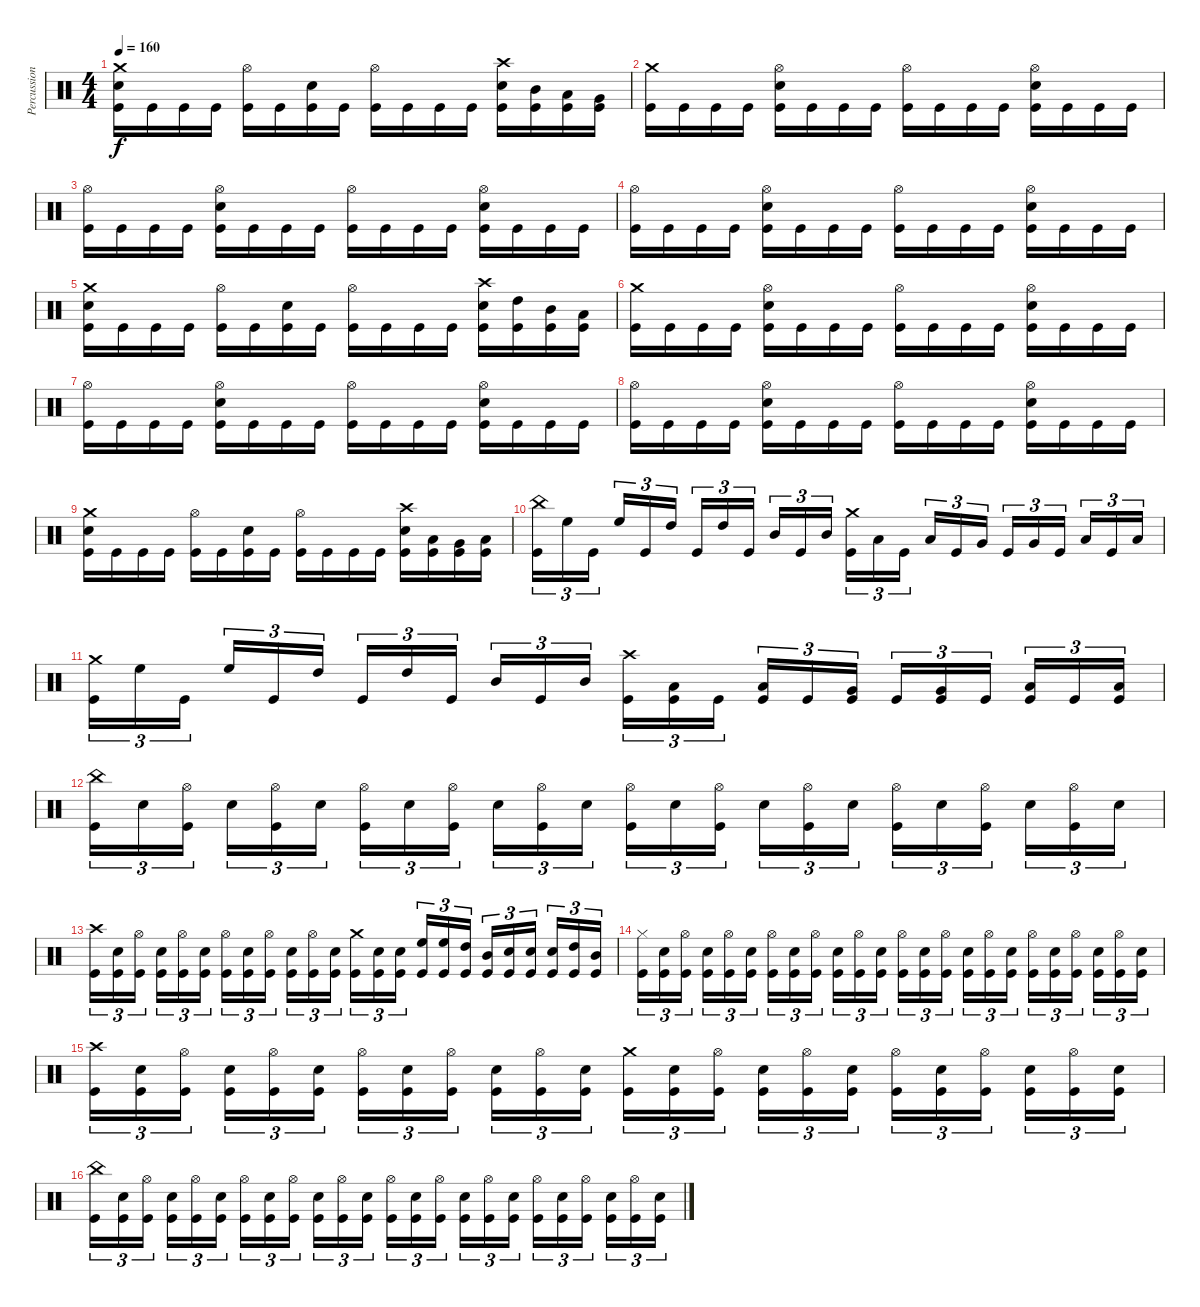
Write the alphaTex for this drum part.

\track ("Percussion" "Percussion") {instrument percussion}
\staff {score}
\articulation defaults
\ts (4 4)
\tempo 160
\clef neutral
\ks c
("Crash medium (hit)" "Snare (hit) 2" "Kick (hit)").16{dy f} "Kick (hit)".16 "Kick (hit)".16 "Kick (hit)".16 ("Hi-Hat (open)" "Kick (hit)").16 "Kick (hit)".16 ("Snare (hit) 2" "Kick (hit)").16 "Kick (hit)".16 ("Hi-Hat (open)" "Kick (hit)").16 "Kick (hit)".16 "Kick (hit)".16 "Kick (hit)".16 ("Crash high (hit)" "Snare (hit) 2" "Kick (hit)").16 ("Mid Tom (hit)" "Kick (hit)").16 ("Low Tom (hit)" "Kick (hit)").16 ("Very Low Tom (hit)" "Kick (hit)").16 |
("Crash medium (hit)" "Kick (hit)").16 "Kick (hit)".16 "Kick (hit)".16 "Kick (hit)".16 ("Hi-Hat (open)" "Snare (hit) 2" "Kick (hit)").16 "Kick (hit)".16 "Kick (hit)".16 "Kick (hit)".16 ("Hi-Hat (open)" "Kick (hit)").16 "Kick (hit)".16 "Kick (hit)".16 "Kick (hit)".16 ("Hi-Hat (open)" "Snare (hit) 2" "Kick (hit)").16 "Kick (hit)".16 "Kick (hit)".16 "Kick (hit)".16 |
("Hi-Hat (open)" "Kick (hit)").16 "Kick (hit)".16 "Kick (hit)".16 "Kick (hit)".16 ("Hi-Hat (open)" "Snare (hit) 2" "Kick (hit)").16 "Kick (hit)".16 "Kick (hit)".16 "Kick (hit)".16 ("Hi-Hat (open)" "Kick (hit)").16 "Kick (hit)".16 "Kick (hit)".16 "Kick (hit)".16 ("Hi-Hat (open)" "Snare (hit) 2" "Kick (hit)").16 "Kick (hit)".16 "Kick (hit)".16 "Kick (hit)".16 |
("Hi-Hat (open)" "Kick (hit)").16 "Kick (hit)".16 "Kick (hit)".16 "Kick (hit)".16 ("Hi-Hat (open)" "Snare (hit) 2" "Kick (hit)").16 "Kick (hit)".16 "Kick (hit)".16 "Kick (hit)".16 ("Hi-Hat (open)" "Kick (hit)").16 "Kick (hit)".16 "Kick (hit)".16 "Kick (hit)".16 ("Hi-Hat (open)" "Snare (hit) 2" "Kick (hit)").16 "Kick (hit)".16 "Kick (hit)".16 "Kick (hit)".16 |
("Crash medium (hit)" "Snare (hit) 2" "Kick (hit)").16 "Kick (hit)".16 "Kick (hit)".16 "Kick (hit)".16 ("Hi-Hat (open)" "Kick (hit)").16 "Kick (hit)".16 ("Snare (hit) 2" "Kick (hit)").16 "Kick (hit)".16 ("Hi-Hat (open)" "Kick (hit)").16 "Kick (hit)".16 "Kick (hit)".16 "Kick (hit)".16 ("Crash high (hit)" "Snare (hit) 2" "Kick (hit)").16 ("High Tom (hit)" "Kick (hit)").16 ("Mid Tom (hit)" "Kick (hit)").16 ("Low Tom (hit)" "Kick (hit)").16 |
("Crash medium (hit)" "Kick (hit)").16 "Kick (hit)".16 "Kick (hit)".16 "Kick (hit)".16 ("Hi-Hat (open)" "Snare (hit) 2" "Kick (hit)").16 "Kick (hit)".16 "Kick (hit)".16 "Kick (hit)".16 ("Hi-Hat (open)" "Kick (hit)").16 "Kick (hit)".16 "Kick (hit)".16 "Kick (hit)".16 ("Hi-Hat (open)" "Snare (hit) 2" "Kick (hit)").16 "Kick (hit)".16 "Kick (hit)".16 "Kick (hit)".16 |
("Hi-Hat (open)" "Kick (hit)").16 "Kick (hit)".16 "Kick (hit)".16 "Kick (hit)".16 ("Hi-Hat (open)" "Snare (hit) 2" "Kick (hit)").16 "Kick (hit)".16 "Kick (hit)".16 "Kick (hit)".16 ("Hi-Hat (open)" "Kick (hit)").16 "Kick (hit)".16 "Kick (hit)".16 "Kick (hit)".16 ("Hi-Hat (open)" "Snare (hit) 2" "Kick (hit)").16 "Kick (hit)".16 "Kick (hit)".16 "Kick (hit)".16 |
("Hi-Hat (open)" "Kick (hit)").16 "Kick (hit)".16 "Kick (hit)".16 "Kick (hit)".16 ("Hi-Hat (open)" "Snare (hit) 2" "Kick (hit)").16 "Kick (hit)".16 "Kick (hit)".16 "Kick (hit)".16 ("Hi-Hat (open)" "Kick (hit)").16 "Kick (hit)".16 "Kick (hit)".16 "Kick (hit)".16 ("Hi-Hat (open)" "Snare (hit) 2" "Kick (hit)").16 "Kick (hit)".16 "Kick (hit)".16 "Kick (hit)".16 |
("Crash medium (hit)" "Snare (hit) 2" "Kick (hit)").16 "Kick (hit)".16 "Kick (hit)".16 "Kick (hit)".16 ("Hi-Hat (open)" "Kick (hit)").16 "Kick (hit)".16 ("Snare (hit) 2" "Kick (hit)").16 "Kick (hit)".16 ("Hi-Hat (open)" "Kick (hit)").16 "Kick (hit)".16 "Kick (hit)".16 "Kick (hit)".16 ("Crash high (hit)" "Snare (hit) 2" "Kick (hit)").16 ("Low Tom (hit)" "Kick (hit)").16 ("Very Low Tom (hit)" "Kick (hit)").16 ("Low Floor Tom (hit)" "Kick (hit)").16 |
("China (hit)" "Kick (hit)").16{tu (3 2)} "High Floor Tom (hit)".16{tu (3 2)} "Kick (hit)".16{tu (3 2) beam splitsecondary} "High Floor Tom (hit)".16{tu (3 2)} "Kick (hit)".16{tu (3 2)} "High Tom (hit)".16{tu (3 2)} "Kick (hit)".16{tu (3 2)} "High Tom (hit)".16{tu (3 2)} "Kick (hit)".16{tu (3 2) beam splitsecondary} "Mid Tom (hit)".16{tu (3 2)} "Kick (hit)".16{tu (3 2)} "Mid Tom (hit)".16{tu (3 2)} ("Crash medium (hit)" "Kick (hit)").16{tu (3 2)} "Low Tom (hit)".16{tu (3 2)} "Kick (hit)".16{tu (3 2) beam splitsecondary} "Low Tom (hit)".16{tu (3 2)} "Kick (hit)".16{tu (3 2)} "Very Low Tom (hit)".16{tu (3 2)} "Kick (hit)".16{tu (3 2)} "Very Low Tom (hit)".16{tu (3 2)} "Kick (hit)".16{tu (3 2) beam splitsecondary} "Low Floor Tom (hit)".16{tu (3 2)} "Kick (hit)".16{tu (3 2)} "Low Floor Tom (hit)".16{tu (3 2)} |
("Crash medium (hit)" "Kick (hit)").16{tu (3 2)} "High Floor Tom (hit)".16{tu (3 2)} "Kick (hit)".16{tu (3 2) beam splitsecondary} "High Floor Tom (hit)".16{tu (3 2)} "Kick (hit)".16{tu (3 2)} "High Tom (hit)".16{tu (3 2)} "Kick (hit)".16{tu (3 2)} "High Tom (hit)".16{tu (3 2)} "Kick (hit)".16{tu (3 2) beam splitsecondary} "Mid Tom (hit)".16{tu (3 2)} "Kick (hit)".16{tu (3 2)} "Mid Tom (hit)".16{tu (3 2)} ("Crash high (hit)" "Kick (hit)").16{tu (3 2)} ("Low Tom (hit)" "Kick (hit)").16{tu (3 2)} "Kick (hit)".16{tu (3 2) beam splitsecondary} ("Low Tom (hit)" "Kick (hit)").16{tu (3 2)} "Kick (hit)".16{tu (3 2)} ("Very Low Tom (hit)" "Kick (hit)").16{tu (3 2)} "Kick (hit)".16{tu (3 2)} ("Very Low Tom (hit)" "Kick (hit)").16{tu (3 2)} "Kick (hit)".16{tu (3 2) beam splitsecondary} ("Low Floor Tom (hit)" "Kick (hit)").16{tu (3 2)} "Kick (hit)".16{tu (3 2)} ("Low Floor Tom (hit)" "Kick (hit)").16{tu (3 2)} |
("China (hit)" "Kick (hit)").16{tu (3 2)} "Snare (hit) 2".16{tu (3 2)} ("Hi-Hat (open)" "Kick (hit)").16{tu (3 2) beam splitsecondary} "Snare (hit) 2".16{tu (3 2)} ("Hi-Hat (open)" "Kick (hit)").16{tu (3 2)} "Snare (hit) 2".16{tu (3 2)} ("Hi-Hat (open)" "Kick (hit)").16{tu (3 2)} "Snare (hit) 2".16{tu (3 2)} ("Hi-Hat (open)" "Kick (hit)").16{tu (3 2) beam splitsecondary} "Snare (hit) 2".16{tu (3 2)} ("Hi-Hat (open)" "Kick (hit)").16{tu (3 2)} "Snare (hit) 2".16{tu (3 2)} ("Hi-Hat (open)" "Kick (hit)").16{tu (3 2)} "Snare (hit) 2".16{tu (3 2)} ("Hi-Hat (open)" "Kick (hit)").16{tu (3 2) beam splitsecondary} "Snare (hit) 2".16{tu (3 2)} ("Hi-Hat (open)" "Kick (hit)").16{tu (3 2)} "Snare (hit) 2".16{tu (3 2)} ("Hi-Hat (open)" "Kick (hit)").16{tu (3 2)} "Snare (hit) 2".16{tu (3 2)} ("Hi-Hat (open)" "Kick (hit)").16{tu (3 2) beam splitsecondary} "Snare (hit) 2".16{tu (3 2)} ("Hi-Hat (open)" "Kick (hit)").16{tu (3 2)} "Snare (hit) 2".16{tu (3 2)} |
("Crash high (hit)" "Kick (hit)").16{tu (3 2)} ("Snare (hit) 2" "Kick (hit)").16{tu (3 2)} ("Hi-Hat (open)" "Kick (hit)").16{tu (3 2) beam splitsecondary} ("Snare (hit) 2" "Kick (hit)").16{tu (3 2)} ("Hi-Hat (open)" "Kick (hit)").16{tu (3 2)} ("Snare (hit) 2" "Kick (hit)").16{tu (3 2)} ("Hi-Hat (open)" "Kick (hit)").16{tu (3 2)} ("Snare (hit) 2" "Kick (hit)").16{tu (3 2)} ("Hi-Hat (open)" "Kick (hit)").16{tu (3 2) beam splitsecondary} ("Snare (hit) 2" "Kick (hit)").16{tu (3 2)} ("Hi-Hat (open)" "Kick (hit)").16{tu (3 2)} ("Snare (hit) 2" "Kick (hit)").16{tu (3 2)} ("Crash medium (hit)" "Kick (hit)").16{tu (3 2)} ("Snare (hit) 2" "Kick (hit)").16{tu (3 2)} ("Snare (hit) 2" "Kick (hit)").16{tu (3 2) beam splitsecondary} ("High Floor Tom (hit)" "Kick (hit)").16{tu (3 2)} ("High Floor Tom (hit)" "Kick (hit)").16{tu (3 2)} ("High Tom (hit)" "Kick (hit)").16{tu (3 2)} ("Mid Tom (hit)" "Kick (hit)").16{tu (3 2)} ("Snare (hit) 2" "Kick (hit)").16{tu (3 2)} ("Snare (hit) 2" "Kick (hit)").16{tu (3 2) beam splitsecondary} ("Snare (hit) 2" "Kick (hit)").16{tu (3 2)} ("High Tom (hit)" "Kick (hit)").16{tu (3 2)} ("Mid Tom (hit)" "Kick (hit)").16{tu (3 2)} |
("Hi-Hat (closed)" "Kick (hit)").16{tu (3 2)} ("Snare (hit) 2" "Kick (hit)").16{tu (3 2)} ("Hi-Hat (open)" "Kick (hit)").16{tu (3 2) beam splitsecondary} ("Snare (hit) 2" "Kick (hit)").16{tu (3 2)} ("Hi-Hat (open)" "Kick (hit)").16{tu (3 2)} ("Snare (hit) 2" "Kick (hit)").16{tu (3 2)} ("Hi-Hat (open)" "Kick (hit)").16{tu (3 2)} ("Snare (hit) 2" "Kick (hit)").16{tu (3 2)} ("Hi-Hat (open)" "Kick (hit)").16{tu (3 2) beam splitsecondary} ("Snare (hit) 2" "Kick (hit)").16{tu (3 2)} ("Hi-Hat (open)" "Kick (hit)").16{tu (3 2)} ("Snare (hit) 2" "Kick (hit)").16{tu (3 2)} ("Hi-Hat (open)" "Kick (hit)").16{tu (3 2)} ("Snare (hit) 2" "Kick (hit)").16{tu (3 2)} ("Hi-Hat (open)" "Kick (hit)").16{tu (3 2) beam splitsecondary} ("Snare (hit) 2" "Kick (hit)").16{tu (3 2)} ("Hi-Hat (open)" "Kick (hit)").16{tu (3 2)} ("Snare (hit) 2" "Kick (hit)").16{tu (3 2)} ("Hi-Hat (open)" "Kick (hit)").16{tu (3 2)} ("Snare (hit) 2" "Kick (hit)").16{tu (3 2)} ("Hi-Hat (open)" "Kick (hit)").16{tu (3 2) beam splitsecondary} ("Snare (hit) 2" "Kick (hit)").16{tu (3 2)} ("Hi-Hat (open)" "Kick (hit)").16{tu (3 2)} ("Snare (hit) 2" "Kick (hit)").16{tu (3 2)} |
("Crash high (hit)" "Kick (hit)").16{tu (3 2)} ("Snare (hit) 2" "Kick (hit)").16{tu (3 2)} ("Hi-Hat (open)" "Kick (hit)").16{tu (3 2) beam splitsecondary} ("Snare (hit) 2" "Kick (hit)").16{tu (3 2)} ("Hi-Hat (open)" "Kick (hit)").16{tu (3 2)} ("Snare (hit) 2" "Kick (hit)").16{tu (3 2)} ("Hi-Hat (open)" "Kick (hit)").16{tu (3 2)} ("Snare (hit) 2" "Kick (hit)").16{tu (3 2)} ("Hi-Hat (open)" "Kick (hit)").16{tu (3 2) beam splitsecondary} ("Snare (hit) 2" "Kick (hit)").16{tu (3 2)} ("Hi-Hat (open)" "Kick (hit)").16{tu (3 2)} ("Snare (hit) 2" "Kick (hit)").16{tu (3 2)} ("Crash medium (hit)" "Kick (hit)").16{tu (3 2)} ("Snare (hit) 2" "Kick (hit)").16{tu (3 2)} ("Hi-Hat (open)" "Kick (hit)").16{tu (3 2) beam splitsecondary} ("Snare (hit) 2" "Kick (hit)").16{tu (3 2)} ("Hi-Hat (open)" "Kick (hit)").16{tu (3 2)} ("Snare (hit) 2" "Kick (hit)").16{tu (3 2)} ("Hi-Hat (open)" "Kick (hit)").16{tu (3 2)} ("Snare (hit) 2" "Kick (hit)").16{tu (3 2)} ("Hi-Hat (open)" "Kick (hit)").16{tu (3 2) beam splitsecondary} ("Snare (hit) 2" "Kick (hit)").16{tu (3 2)} ("Hi-Hat (open)" "Kick (hit)").16{tu (3 2)} ("Snare (hit) 2" "Kick (hit)").16{tu (3 2)} |
("China (hit)" "Kick (hit)").16{tu (3 2)} ("Snare (hit) 2" "Kick (hit)").16{tu (3 2)} ("Hi-Hat (open)" "Kick (hit)").16{tu (3 2) beam splitsecondary} ("Snare (hit) 2" "Kick (hit)").16{tu (3 2)} ("Hi-Hat (open)" "Kick (hit)").16{tu (3 2)} ("Snare (hit) 2" "Kick (hit)").16{tu (3 2)} ("Hi-Hat (open)" "Kick (hit)").16{tu (3 2)} ("Snare (hit) 2" "Kick (hit)").16{tu (3 2)} ("Hi-Hat (open)" "Kick (hit)").16{tu (3 2) beam splitsecondary} ("Snare (hit) 2" "Kick (hit)").16{tu (3 2)} ("Hi-Hat (open)" "Kick (hit)").16{tu (3 2)} ("Snare (hit) 2" "Kick (hit)").16{tu (3 2)} ("Hi-Hat (open)" "Kick (hit)").16{tu (3 2)} ("Snare (hit) 2" "Kick (hit)").16{tu (3 2)} ("Hi-Hat (open)" "Kick (hit)").16{tu (3 2) beam splitsecondary} ("Snare (hit) 2" "Kick (hit)").16{tu (3 2)} ("Hi-Hat (open)" "Kick (hit)").16{tu (3 2)} ("Snare (hit) 2" "Kick (hit)").16{tu (3 2)} ("Hi-Hat (open)" "Kick (hit)").16{tu (3 2)} ("Snare (hit) 2" "Kick (hit)").16{tu (3 2)} ("Hi-Hat (open)" "Kick (hit)").16{tu (3 2) beam splitsecondary} ("Snare (hit) 2" "Kick (hit)").16{tu (3 2)} ("Hi-Hat (open)" "Kick (hit)").16{tu (3 2)} ("Snare (hit) 2" "Kick (hit)").16{tu (3 2)}
